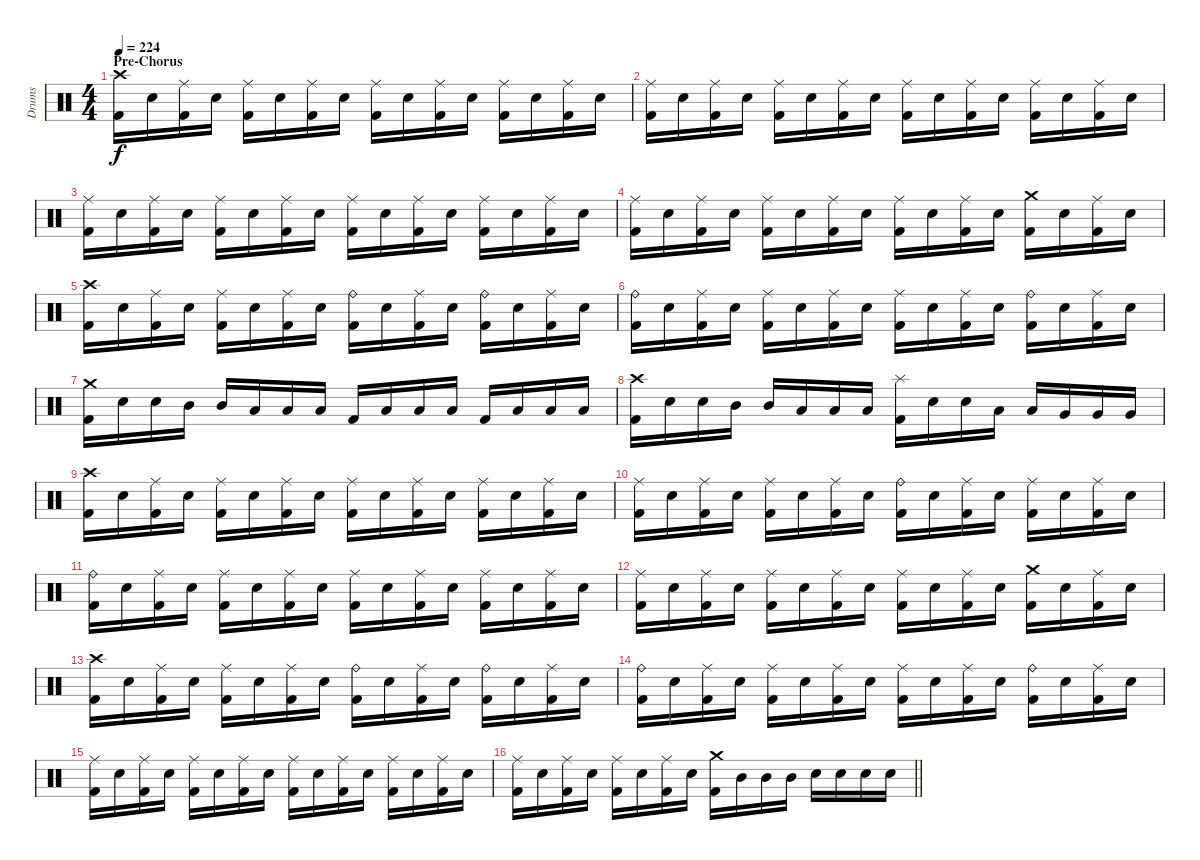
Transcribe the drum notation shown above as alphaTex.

\track ("Drums" "Drums") {instrument percussion}
\staff {score}
\articulation defaults
\ts (4 4)
\section ("" "Pre-Chorus")
\tempo 224
\clef neutral
\ks c
("Crash high (hit)" "Kick (hit) 2").16{dy f} "Electric Snare (hit)".16 ("Ride (middle)" "Kick (hit) 2").16 "Electric Snare (hit)".16 ("Ride (middle)" "Kick (hit) 2").16 "Electric Snare (hit)".16 ("Ride (middle)" "Kick (hit) 2").16 "Electric Snare (hit)".16 ("Ride (middle)" "Kick (hit) 2").16 "Electric Snare (hit)".16 ("Ride (middle)" "Kick (hit) 2").16 "Electric Snare (hit)".16 ("Ride (middle)" "Kick (hit) 2").16 "Electric Snare (hit)".16 ("Ride (middle)" "Kick (hit) 2").16 "Electric Snare (hit)".16 |
("Ride (middle)" "Kick (hit) 2").16 "Electric Snare (hit)".16 ("Ride (middle)" "Kick (hit) 2").16 "Electric Snare (hit)".16 ("Ride (middle)" "Kick (hit) 2").16 "Electric Snare (hit)".16 ("Ride (middle)" "Kick (hit) 2").16 "Electric Snare (hit)".16 ("Ride (middle)" "Kick (hit) 2").16 "Electric Snare (hit)".16 ("Ride (middle)" "Kick (hit) 2").16 "Electric Snare (hit)".16 ("Ride (middle)" "Kick (hit) 2").16 "Electric Snare (hit)".16 ("Ride (middle)" "Kick (hit) 2").16 "Electric Snare (hit)".16 |
("Ride (middle)" "Kick (hit) 2").16 "Electric Snare (hit)".16 ("Ride (middle)" "Kick (hit) 2").16 "Electric Snare (hit)".16 ("Ride (middle)" "Kick (hit) 2").16 "Electric Snare (hit)".16 ("Ride (middle)" "Kick (hit) 2").16 "Electric Snare (hit)".16 ("Ride (middle)" "Kick (hit) 2").16 "Electric Snare (hit)".16 ("Ride (middle)" "Kick (hit) 2").16 "Electric Snare (hit)".16 ("Ride (middle)" "Kick (hit) 2").16 "Electric Snare (hit)".16 ("Ride (middle)" "Kick (hit) 2").16 "Electric Snare (hit)".16 |
("Ride (middle)" "Kick (hit) 2").16 "Electric Snare (hit)".16 ("Ride (middle)" "Kick (hit) 2").16 "Electric Snare (hit)".16 ("Ride (middle)" "Kick (hit) 2").16 "Electric Snare (hit)".16 ("Ride (middle)" "Kick (hit) 2").16 "Electric Snare (hit)".16 ("Ride (middle)" "Kick (hit) 2").16 "Electric Snare (hit)".16 ("Ride (middle)" "Kick (hit) 2").16 "Electric Snare (hit)".16 ("Crash medium (hit)" "Kick (hit) 2").16 "Electric Snare (hit)".16 ("Ride (middle)" "Kick (hit) 2").16 "Electric Snare (hit)".16 |
("Crash high (hit)" "Kick (hit) 2").16 "Electric Snare (hit)".16 ("Ride (middle)" "Kick (hit) 2").16 "Electric Snare (hit)".16 ("Ride (middle)" "Kick (hit) 2").16 "Electric Snare (hit)".16 ("Ride (middle)" "Kick (hit) 2").16 "Electric Snare (hit)".16 ("Ride (bell)" "Kick (hit) 2").16 "Electric Snare (hit)".16 ("Ride (middle)" "Kick (hit) 2").16 "Electric Snare (hit)".16 ("Ride (bell)" "Kick (hit) 2").16 "Electric Snare (hit)".16 ("Ride (middle)" "Kick (hit) 2").16 "Electric Snare (hit)".16 |
("Ride (bell)" "Kick (hit) 2").16 "Electric Snare (hit)".16 ("Ride (middle)" "Kick (hit) 2").16 "Electric Snare (hit)".16 ("Ride (middle)" "Kick (hit) 2").16 "Electric Snare (hit)".16 ("Ride (middle)" "Kick (hit) 2").16 "Electric Snare (hit)".16 ("Ride (middle)" "Kick (hit) 2").16 "Electric Snare (hit)".16 ("Ride (middle)" "Kick (hit) 2").16 "Electric Snare (hit)".16 ("Ride (bell)" "Kick (hit) 2").16 "Electric Snare (hit)".16 ("Ride (middle)" "Kick (hit) 2").16 "Electric Snare (hit)".16 |
("Crash medium (hit)" "Kick (hit) 2").16 "Electric Snare (hit)".16 "Electric Snare (hit)".16 "Mid Tom (hit)".16 "Mid Tom (hit)".16 "Low Tom (hit)".16 "Low Tom (hit)".16 "Low Tom (hit)".16 "Kick (hit) 2".16 "Low Tom (hit)".16 "Low Tom (hit)".16 "Low Tom (hit)".16 "Kick (hit) 2".16 "Low Tom (hit)".16 "Low Tom (hit)".16 "Low Tom (hit)".16 |
("Crash high (hit)" "Kick (hit) 2").16 "Electric Snare (hit)".16 "Electric Snare (hit)".16 "Mid Tom (hit)".16 "Mid Tom (hit)".16 "Low Tom (hit)".16 "Low Tom (hit)".16 "Low Tom (hit)".16 ("Splash (hit)" "Kick (hit) 2").16 "Electric Snare (hit)".16 "Electric Snare (hit)".16 "Low Tom (hit)".16 "Low Tom (hit)".16 "Very Low Tom (hit)".16 "Very Low Tom (hit)".16 "Very Low Tom (hit)".16 |
("Crash high (hit)" "Kick (hit) 2").16 "Electric Snare (hit)".16 ("Ride (middle)" "Kick (hit) 2").16 "Electric Snare (hit)".16 ("Ride (middle)" "Kick (hit) 2").16 "Electric Snare (hit)".16 ("Ride (middle)" "Kick (hit) 2").16 "Electric Snare (hit)".16 ("Ride (middle)" "Kick (hit) 2").16 "Electric Snare (hit)".16 ("Ride (middle)" "Kick (hit) 2").16 "Electric Snare (hit)".16 ("Ride (middle)" "Kick (hit) 2").16 "Electric Snare (hit)".16 ("Ride (middle)" "Kick (hit) 2").16 "Electric Snare (hit)".16 |
("Ride (middle)" "Kick (hit) 2").16 "Electric Snare (hit)".16 ("Ride (middle)" "Kick (hit) 2").16 "Electric Snare (hit)".16 ("Ride (middle)" "Kick (hit) 2").16 "Electric Snare (hit)".16 ("Ride (middle)" "Kick (hit) 2").16 "Electric Snare (hit)".16 ("Ride (bell)" "Kick (hit) 2").16 "Electric Snare (hit)".16 ("Ride (middle)" "Kick (hit) 2").16 "Electric Snare (hit)".16 ("Ride (middle)" "Kick (hit) 2").16 "Electric Snare (hit)".16 ("Ride (middle)" "Kick (hit) 2").16 "Electric Snare (hit)".16 |
("Ride (bell)" "Kick (hit) 2").16 "Electric Snare (hit)".16 ("Ride (middle)" "Kick (hit) 2").16 "Electric Snare (hit)".16 ("Ride (middle)" "Kick (hit) 2").16 "Electric Snare (hit)".16 ("Ride (middle)" "Kick (hit) 2").16 "Electric Snare (hit)".16 ("Ride (middle)" "Kick (hit) 2").16 "Electric Snare (hit)".16 ("Ride (middle)" "Kick (hit) 2").16 "Electric Snare (hit)".16 ("Ride (middle)" "Kick (hit) 2").16 "Electric Snare (hit)".16 ("Ride (middle)" "Kick (hit) 2").16 "Electric Snare (hit)".16 |
("Ride (middle)" "Kick (hit) 2").16 "Electric Snare (hit)".16 ("Ride (middle)" "Kick (hit) 2").16 "Electric Snare (hit)".16 ("Ride (middle)" "Kick (hit) 2").16 "Electric Snare (hit)".16 ("Ride (middle)" "Kick (hit) 2").16 "Electric Snare (hit)".16 ("Ride (middle)" "Kick (hit) 2").16 "Electric Snare (hit)".16 ("Ride (middle)" "Kick (hit) 2").16 "Electric Snare (hit)".16 ("Crash medium (hit)" "Kick (hit) 2").16 "Electric Snare (hit)".16 ("Ride (middle)" "Kick (hit) 2").16 "Electric Snare (hit)".16 |
("Crash high (hit)" "Kick (hit) 2").16 "Electric Snare (hit)".16 ("Ride (middle)" "Kick (hit) 2").16 "Electric Snare (hit)".16 ("Ride (middle)" "Kick (hit) 2").16 "Electric Snare (hit)".16 ("Ride (middle)" "Kick (hit) 2").16 "Electric Snare (hit)".16 ("Ride (bell)" "Kick (hit) 2").16 "Electric Snare (hit)".16 ("Ride (middle)" "Kick (hit) 2").16 "Electric Snare (hit)".16 ("Ride (bell)" "Kick (hit) 2").16 "Electric Snare (hit)".16 ("Ride (middle)" "Kick (hit) 2").16 "Electric Snare (hit)".16 |
("Ride (bell)" "Kick (hit) 2").16 "Electric Snare (hit)".16 ("Ride (middle)" "Kick (hit) 2").16 "Electric Snare (hit)".16 ("Ride (middle)" "Kick (hit) 2").16 "Electric Snare (hit)".16 ("Ride (middle)" "Kick (hit) 2").16 "Electric Snare (hit)".16 ("Ride (middle)" "Kick (hit) 2").16 "Electric Snare (hit)".16 ("Ride (middle)" "Kick (hit) 2").16 "Electric Snare (hit)".16 ("Ride (bell)" "Kick (hit) 2").16 "Electric Snare (hit)".16 ("Ride (middle)" "Kick (hit) 2").16 "Electric Snare (hit)".16 |
("Ride (middle)" "Kick (hit) 2").16 "Electric Snare (hit)".16 ("Ride (middle)" "Kick (hit) 2").16 "Electric Snare (hit)".16 ("Ride (middle)" "Kick (hit) 2").16 "Electric Snare (hit)".16 ("Ride (middle)" "Kick (hit) 2").16 "Electric Snare (hit)".16 ("Ride (middle)" "Kick (hit) 2").16 "Electric Snare (hit)".16 ("Ride (middle)" "Kick (hit) 2").16 "Electric Snare (hit)".16 ("Ride (middle)" "Kick (hit) 2").16 "Electric Snare (hit)".16 ("Ride (middle)" "Kick (hit) 2").16 "Electric Snare (hit)".16 |
\barLineRight lightlight
("Ride (middle)" "Kick (hit) 2").16 "Electric Snare (hit)".16 ("Ride (middle)" "Kick (hit) 2").16 "Electric Snare (hit)".16 ("Ride (middle)" "Kick (hit) 2").16 "Electric Snare (hit)".16 ("Ride (middle)" "Kick (hit) 2").16 "Electric Snare (hit)".16 ("Crash medium (hit)" "Kick (hit) 2").16 "Mid Tom (hit)".16 "Mid Tom (hit)".16 "Mid Tom (hit)".16 "Electric Snare (hit)".16 "Electric Snare (hit)".16 "Electric Snare (hit)".16 "Electric Snare (hit)".16
